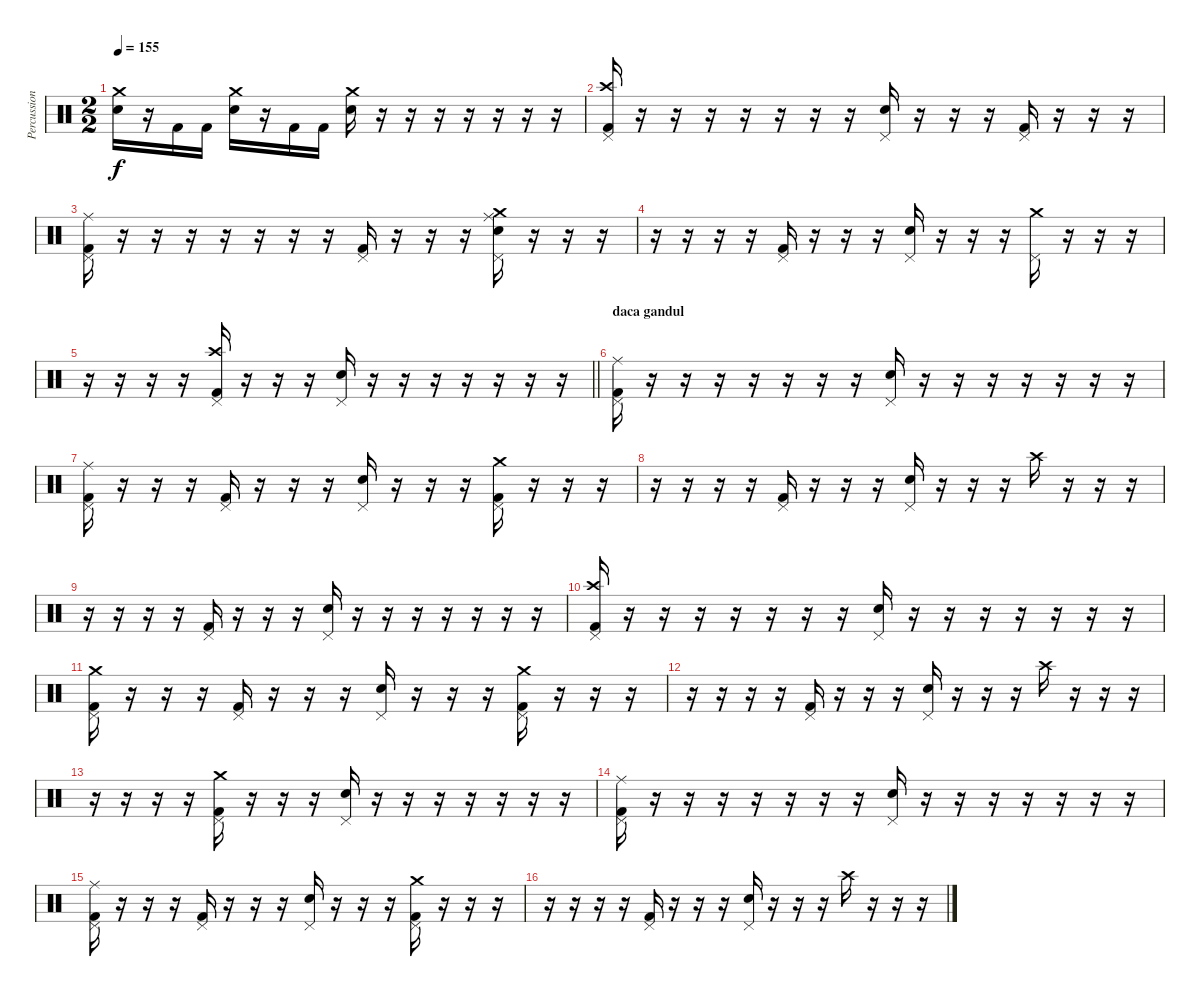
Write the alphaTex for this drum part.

\track ("Percussion" "Percussion") {instrument percussion}
\staff {score}
\articulation defaults
\ts (2 2)
\tempo 155
\clef neutral
\ks c
("Crash medium (hit)" "Snare (hit) 2").16{dy f} r.16 "Kick (hit) 2".16 "Kick (hit) 2".16 ("Crash medium (hit)" "Snare (hit) 2").16 r.16 "Kick (hit) 2".16 "Kick (hit) 2".16 ("Crash medium (hit)" "Snare (hit) 2").16 r.16 r.16 r.16 r.16 r.16 r.16 r.16 |
("Crash high (hit)" "Pedal Hi-Hat (hit)" "Kick (hit) 2").16 r.16 r.16 r.16 r.16 r.16 r.16 r.16 ("Pedal Hi-Hat (hit)" "Snare (hit) 2").16 r.16 r.16 r.16 ("Pedal Hi-Hat (hit)" "Kick (hit) 2").16 r.16 r.16 r.16 |
("Ride (middle)" "Pedal Hi-Hat (hit)" "Kick (hit) 2").16 r.16 r.16 r.16 r.16 r.16 r.16 r.16 ("Pedal Hi-Hat (hit)" "Kick (hit) 2").16 r.16 r.16 r.16 ("Ride (middle)" "Crash medium (hit)" "Pedal Hi-Hat (hit)" "Snare (hit) 2").16 r.16 r.16 r.16 |
r.16 r.16 r.16 r.16 ("Pedal Hi-Hat (hit)" "Kick (hit) 2").16 r.16 r.16 r.16 ("Pedal Hi-Hat (hit)" "Snare (hit) 2").16 r.16 r.16 r.16 ("Crash medium (hit)" "Pedal Hi-Hat (hit)").16 r.16 r.16 r.16 |
\barLineRight lightlight
r.16 r.16 r.16 r.16 ("Crash high (hit)" "Pedal Hi-Hat (hit)" "Kick (hit) 2").16 r.16 r.16 r.16 ("Pedal Hi-Hat (hit)" "Snare (hit) 2").16 r.16 r.16 r.16 r.16 r.16 r.16 r.16 |
\section ("" "daca gandul")
("Ride (middle)" "Pedal Hi-Hat (hit)" "Kick (hit) 2").16 r.16 r.16 r.16 r.16 r.16 r.16 r.16 ("Pedal Hi-Hat (hit)" "Snare (hit) 2").16 r.16 r.16 r.16 r.16 r.16 r.16 r.16 |
("Ride (middle)" "Pedal Hi-Hat (hit)" "Kick (hit) 2").16 r.16 r.16 r.16 ("Pedal Hi-Hat (hit)" "Kick (hit) 2").16 r.16 r.16 r.16 ("Pedal Hi-Hat (hit)" "Snare (hit) 2").16 r.16 r.16 r.16 ("Crash medium (hit)" "Pedal Hi-Hat (hit)" "Kick (hit) 2").16 r.16 r.16 r.16 |
r.16 r.16 r.16 r.16 ("Pedal Hi-Hat (hit)" "Kick (hit) 2").16 r.16 r.16 r.16 ("Pedal Hi-Hat (hit)" "Snare (hit) 2").16 r.16 r.16 r.16 "Crash high (hit)".16 r.16 r.16 r.16 |
r.16 r.16 r.16 r.16 ("Pedal Hi-Hat (hit)" "Kick (hit) 2").16 r.16 r.16 r.16 ("Pedal Hi-Hat (hit)" "Snare (hit) 2").16 r.16 r.16 r.16 r.16 r.16 r.16 r.16 |
("Crash high (hit)" "Pedal Hi-Hat (hit)" "Kick (hit) 2").16 r.16 r.16 r.16 r.16 r.16 r.16 r.16 ("Pedal Hi-Hat (hit)" "Snare (hit) 2").16 r.16 r.16 r.16 r.16 r.16 r.16 r.16 |
("Crash medium (hit)" "Pedal Hi-Hat (hit)" "Kick (hit) 2").16 r.16 r.16 r.16 ("Pedal Hi-Hat (hit)" "Kick (hit) 2").16 r.16 r.16 r.16 ("Pedal Hi-Hat (hit)" "Snare (hit) 2").16 r.16 r.16 r.16 ("Crash medium (hit)" "Pedal Hi-Hat (hit)" "Kick (hit) 2").16 r.16 r.16 r.16 |
r.16 r.16 r.16 r.16 ("Pedal Hi-Hat (hit)" "Kick (hit) 2").16 r.16 r.16 r.16 ("Pedal Hi-Hat (hit)" "Snare (hit) 2").16 r.16 r.16 r.16 "Crash high (hit)".16 r.16 r.16 r.16 |
r.16 r.16 r.16 r.16 ("Crash medium (hit)" "Pedal Hi-Hat (hit)" "Kick (hit) 2").16 r.16 r.16 r.16 ("Pedal Hi-Hat (hit)" "Snare (hit) 2").16 r.16 r.16 r.16 r.16 r.16 r.16 r.16 |
("Ride (middle)" "Pedal Hi-Hat (hit)" "Kick (hit) 2").16 r.16 r.16 r.16 r.16 r.16 r.16 r.16 ("Pedal Hi-Hat (hit)" "Snare (hit) 2").16 r.16 r.16 r.16 r.16 r.16 r.16 r.16 |
("Ride (middle)" "Pedal Hi-Hat (hit)" "Kick (hit) 2").16 r.16 r.16 r.16 ("Pedal Hi-Hat (hit)" "Kick (hit) 2").16 r.16 r.16 r.16 ("Pedal Hi-Hat (hit)" "Snare (hit) 2").16 r.16 r.16 r.16 ("Crash medium (hit)" "Pedal Hi-Hat (hit)" "Kick (hit) 2").16 r.16 r.16 r.16 |
r.16 r.16 r.16 r.16 ("Pedal Hi-Hat (hit)" "Kick (hit) 2").16 r.16 r.16 r.16 ("Pedal Hi-Hat (hit)" "Snare (hit) 2").16 r.16 r.16 r.16 "Crash high (hit)".16 r.16 r.16 r.16
